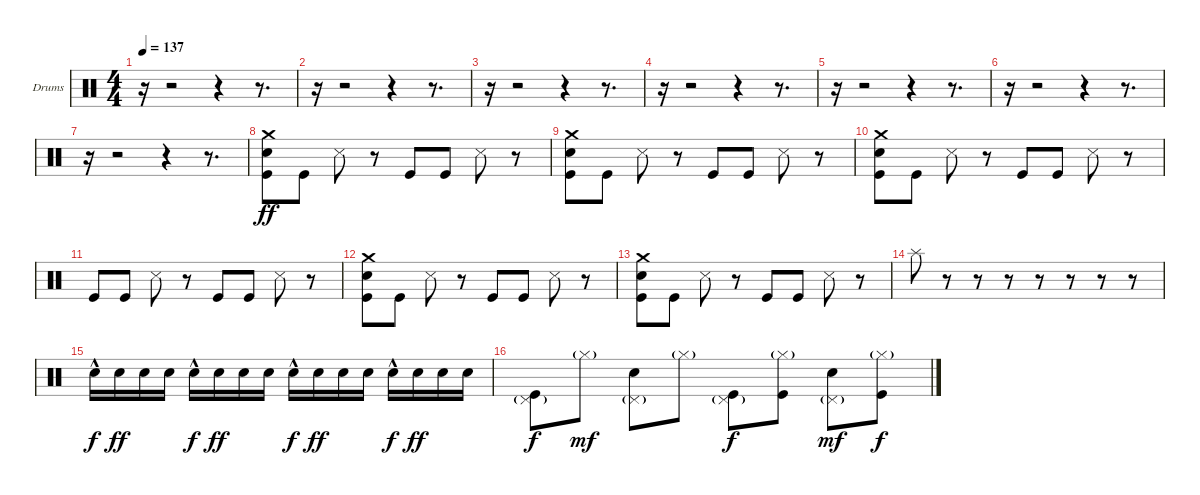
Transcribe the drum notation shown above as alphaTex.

\bracketExtendMode groupsimilarinstruments
\firstSystemTrackNameOrientation horizontal
\otherSystemsTrackNameOrientation horizontal
\track ("Drumkit (Christoph)" "Drums") {instrument percussion}
\staff {score}
\articulation defaults
\ts (4 4)
\tempo 137
\clef neutral
\ks c
r.16{dy ff} r.2 r.4 r.8{d} |
r.16 r.2 r.4 r.8{d} |
r.16 r.2 r.4 r.8{d} |
r.16 r.2 r.4 r.8{d} |
r.16 r.2 r.4 r.8{d} |
r.16 r.2 r.4 r.8{d} |
r.16 r.2 r.4 r.8{d} |
("Crash medium (hit)" "Snare (hit) 2" "Kick (hit)").8 "Kick (hit)".8 "Snare (side stick) 3".8 r.8 "Kick (hit)".8 "Kick (hit)".8 "Snare (side stick) 3".8 r.8 |
("Crash medium (hit)" "Snare (hit) 2" "Kick (hit)").8 "Kick (hit)".8 "Snare (side stick) 3".8 r.8 "Kick (hit)".8 "Kick (hit)".8 "Snare (side stick) 3".8 r.8 |
("Crash medium (hit)" "Snare (hit) 2" "Kick (hit)").8 "Kick (hit)".8 "Snare (side stick) 3".8 r.8 "Kick (hit)".8 "Kick (hit)".8 "Snare (side stick) 3".8 r.8 |
"Kick (hit)".8 "Kick (hit)".8 "Snare (side stick) 3".8 r.8 "Kick (hit)".8 "Kick (hit)".8 "Snare (side stick) 3".8 r.8 |
("Crash medium (hit)" "Snare (hit) 2" "Kick (hit)").8 "Kick (hit)".8 "Snare (side stick) 3".8 r.8 "Kick (hit)".8 "Kick (hit)".8 "Snare (side stick) 3".8 r.8 |
("Crash medium (hit)" "Snare (hit) 2" "Kick (hit)").8 "Kick (hit)".8 "Snare (side stick) 3".8 r.8 "Kick (hit)".8 "Kick (hit)".8 "Snare (side stick) 3".8 r.8 |
"Splash (hit)".8 r.8 r.8 r.8 r.8 r.8 r.8 r.8 |
"Snare (hit) 2"{hac}.16{dy f} "Snare (hit) 2".16{dy ff} "Snare (hit) 2".16 "Snare (hit) 2".16 "Snare (hit) 2"{hac}.16{dy f} "Snare (hit) 2".16{dy ff} "Snare (hit) 2".16 "Snare (hit) 2".16 "Snare (hit) 2"{hac}.16{dy f} "Snare (hit) 2".16{dy ff} "Snare (hit) 2".16 "Snare (hit) 2".16 "Snare (hit) 2"{hac}.16{dy f} "Snare (hit) 2".16{dy ff} "Snare (hit) 2".16 "Snare (hit) 2".16 |
("Pedal Hi-Hat (hit)"{g} "Kick (hit)").8{dy f} "Hi-Hat (closed)"{g}.8{dy mf} ("Pedal Hi-Hat (hit)"{g} "Snare (hit) 2").8 "Hi-Hat (closed)"{g}.8 ("Pedal Hi-Hat (hit)"{g} "Kick (hit)").8{dy f} ("Hi-Hat (closed)"{g} "Kick (hit)").8 ("Pedal Hi-Hat (hit)"{g} "Snare (hit) 2").8{dy mf} ("Hi-Hat (closed)"{g} "Kick (hit)").8{dy f}
